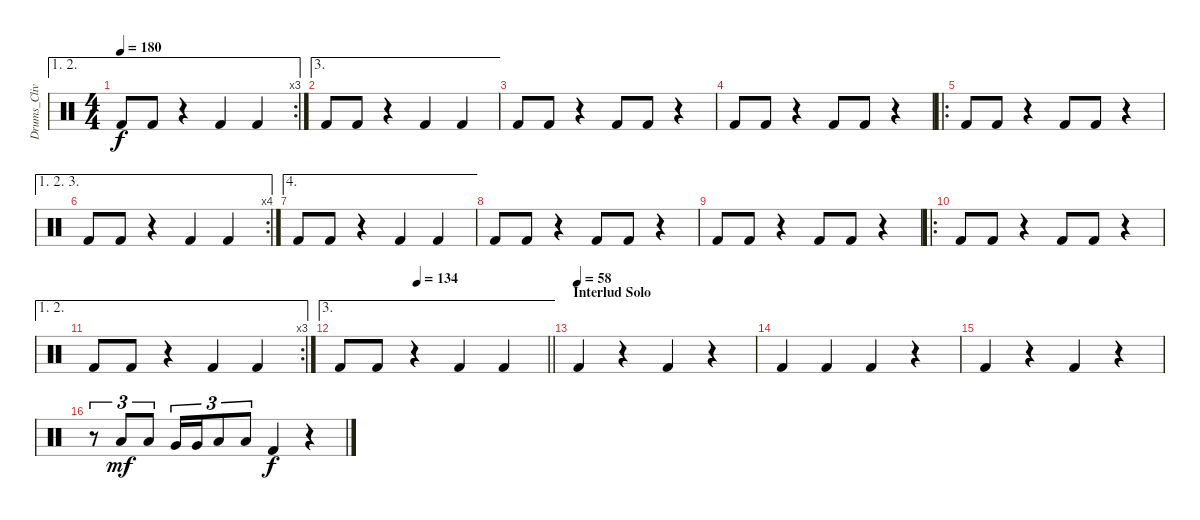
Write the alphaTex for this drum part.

\track ("Drums_CliveBurr" "Drums_Cliv") {instrument percussion}
\staff {score}
\articulation defaults
\ae (1 2)
\rc 3
\ts (4 4)
\tempo 180
\clef neutral
\ks c "Kick (hit) 2".8{dy f} "Kick (hit) 2".8
r.4 "Kick (hit) 2".4 "Kick (hit) 2".4 |
\ae 3 "Kick (hit) 2".8 "Kick (hit) 2".8
r.4 "Kick (hit) 2".4 "Kick (hit) 2".4 |
"Kick (hit) 2".8 "Kick (hit) 2".8 r.4 "Kick (hit) 2".8 "Kick (hit) 2".8 r.4 |
"Kick (hit) 2".8 "Kick (hit) 2".8 r.4 "Kick (hit) 2".8 "Kick (hit) 2".8 r.4 |
\ro "Kick (hit) 2".8 "Kick (hit) 2".8
r.4 "Kick (hit) 2".8 "Kick (hit) 2".8 r.4 |
\ae (1 2 3)
\rc 4 "Kick (hit) 2".8 "Kick (hit) 2".8
r.4 "Kick (hit) 2".4 "Kick (hit) 2".4 |
\ae 4 "Kick (hit) 2".8 "Kick (hit) 2".8
r.4 "Kick (hit) 2".4 "Kick (hit) 2".4 |
"Kick (hit) 2".8 "Kick (hit) 2".8 r.4 "Kick (hit) 2".8 "Kick (hit) 2".8 r.4 |
"Kick (hit) 2".8 "Kick (hit) 2".8 r.4 "Kick (hit) 2".8 "Kick (hit) 2".8 r.4 |
\ro "Kick (hit) 2".8 "Kick (hit) 2".8
r.4 "Kick (hit) 2".8 "Kick (hit) 2".8 r.4 |
\ae (1 2)
\rc 3 "Kick (hit) 2".8 "Kick (hit) 2".8
r.4 "Kick (hit) 2".4 "Kick (hit) 2".4 |
\ae 3
\tempo (134 0.375)
\barLineRight lightlight "Kick (hit) 2".8 "Kick (hit) 2".8
r.4 "Kick (hit) 2".4 "Kick (hit) 2".4 |
\section ("" "Interlud Solo")
\tempo (58)
"Kick (hit) 2".4 r.4 "Kick (hit) 2".4 r.4 |
"Kick (hit) 2".4 "Kick (hit) 2".4 "Kick (hit) 2".4 r.4 |
"Kick (hit) 2".4 r.4 "Kick (hit) 2".4 r.4 |
r.8{tu (3 2)} "Low Tom (hit)".8{tu (3 2) dy mf} "Low Tom (hit)".8{tu (3 2)} "Very Low Tom (hit)".16{tu (3 2)} "Very Low Tom (hit)".16{tu (3 2)} "Low Floor Tom (hit)".8{tu (3 2)} "Low Floor Tom (hit)".8{tu (3 2)} "Kick (hit) 2".4{dy f} r.4
